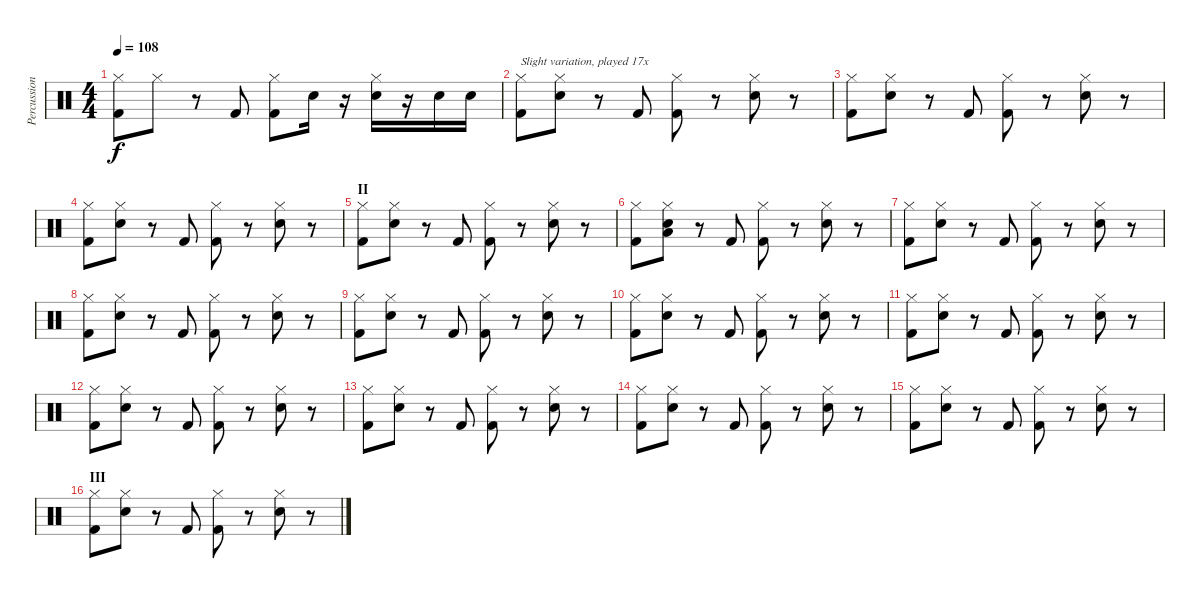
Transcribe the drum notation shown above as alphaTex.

\track ("Percussion" "Percussion") {instrument percussion}
\staff {score}
\articulation defaults
\ts (4 4)
\tempo 108
\clef neutral
\ks c
("Hi-Hat (closed)" "Kick (hit) 2").8{dy f} "Hi-Hat (closed)".8 r.8 "Kick (hit) 2".8 ("Hi-Hat (closed)" "Kick (hit) 2").8 "Electric Snare (hit)".16 r.16 ("Electric Snare (hit)" "Hi-Hat (closed)").16 r.16 "Electric Snare (hit)".16 "Electric Snare (hit)".16 |
("Hi-Hat (closed)" "Kick (hit) 2").8{txt "Slight variation, played 17x"} ("Electric Snare (hit)" "Hi-Hat (closed)").8 r.8 "Kick (hit) 2".8 ("Hi-Hat (closed)" "Kick (hit) 2").8 r.8 ("Electric Snare (hit)" "Hi-Hat (closed)").8 r.8 |
("Hi-Hat (closed)" "Kick (hit) 2").8 ("Electric Snare (hit)" "Hi-Hat (closed)").8 r.8 "Kick (hit) 2".8 ("Hi-Hat (closed)" "Kick (hit) 2").8 r.8 ("Electric Snare (hit)" "Hi-Hat (closed)").8 r.8 |
("Hi-Hat (closed)" "Kick (hit) 2").8 ("Electric Snare (hit)" "Hi-Hat (closed)").8 r.8 "Kick (hit) 2".8 ("Hi-Hat (closed)" "Kick (hit) 2").8 r.8 ("Electric Snare (hit)" "Hi-Hat (closed)").8 r.8 |
\section ("" "II")
("Hi-Hat (closed)" "Kick (hit) 2").8 ("Electric Snare (hit)" "Hi-Hat (closed)").8 r.8 "Kick (hit) 2".8 ("Hi-Hat (closed)" "Kick (hit) 2").8 r.8 ("Electric Snare (hit)" "Hi-Hat (closed)").8 r.8 |
("Hi-Hat (closed)" "Kick (hit) 2").8 ("Low Floor Tom (hit)" "Electric Snare (hit)" "Hi-Hat (closed)").8 r.8 "Kick (hit) 2".8 ("Hi-Hat (closed)" "Kick (hit) 2").8 r.8 ("Electric Snare (hit)" "Hi-Hat (closed)").8 r.8 |
("Hi-Hat (closed)" "Kick (hit) 2").8 ("Electric Snare (hit)" "Hi-Hat (closed)").8 r.8 "Kick (hit) 2".8 ("Hi-Hat (closed)" "Kick (hit) 2").8 r.8 ("Electric Snare (hit)" "Hi-Hat (closed)").8 r.8 |
("Hi-Hat (closed)" "Kick (hit) 2").8 ("Electric Snare (hit)" "Hi-Hat (closed)").8 r.8 "Kick (hit) 2".8 ("Hi-Hat (closed)" "Kick (hit) 2").8 r.8 ("Electric Snare (hit)" "Hi-Hat (closed)").8 r.8 |
("Hi-Hat (closed)" "Kick (hit) 2").8 ("Electric Snare (hit)" "Hi-Hat (closed)").8 r.8 "Kick (hit) 2".8 ("Hi-Hat (closed)" "Kick (hit) 2").8 r.8 ("Electric Snare (hit)" "Hi-Hat (closed)").8 r.8 |
("Hi-Hat (closed)" "Kick (hit) 2").8 ("Electric Snare (hit)" "Hi-Hat (closed)").8 r.8 "Kick (hit) 2".8 ("Hi-Hat (closed)" "Kick (hit) 2").8 r.8 ("Electric Snare (hit)" "Hi-Hat (closed)").8 r.8 |
("Hi-Hat (closed)" "Kick (hit) 2").8 ("Electric Snare (hit)" "Hi-Hat (closed)").8 r.8 "Kick (hit) 2".8 ("Hi-Hat (closed)" "Kick (hit) 2").8 r.8 ("Electric Snare (hit)" "Hi-Hat (closed)").8 r.8 |
("Hi-Hat (closed)" "Kick (hit) 2").8 ("Electric Snare (hit)" "Hi-Hat (closed)").8 r.8 "Kick (hit) 2".8 ("Hi-Hat (closed)" "Kick (hit) 2").8 r.8 ("Electric Snare (hit)" "Hi-Hat (closed)").8 r.8 |
("Hi-Hat (closed)" "Kick (hit) 2").8 ("Electric Snare (hit)" "Hi-Hat (closed)").8 r.8 "Kick (hit) 2".8 ("Hi-Hat (closed)" "Kick (hit) 2").8 r.8 ("Electric Snare (hit)" "Hi-Hat (closed)").8 r.8 |
("Hi-Hat (closed)" "Kick (hit) 2").8 ("Electric Snare (hit)" "Hi-Hat (closed)").8 r.8 "Kick (hit) 2".8 ("Hi-Hat (closed)" "Kick (hit) 2").8 r.8 ("Electric Snare (hit)" "Hi-Hat (closed)").8 r.8 |
("Hi-Hat (closed)" "Kick (hit) 2").8 ("Electric Snare (hit)" "Hi-Hat (closed)").8 r.8 "Kick (hit) 2".8 ("Hi-Hat (closed)" "Kick (hit) 2").8 r.8 ("Electric Snare (hit)" "Hi-Hat (closed)").8 r.8 |
\section ("" "III")
("Hi-Hat (closed)" "Kick (hit) 2").8 ("Electric Snare (hit)" "Hi-Hat (closed)").8 r.8 "Kick (hit) 2".8 ("Hi-Hat (closed)" "Kick (hit) 2").8 r.8 ("Electric Snare (hit)" "Hi-Hat (closed)").8 r.8
